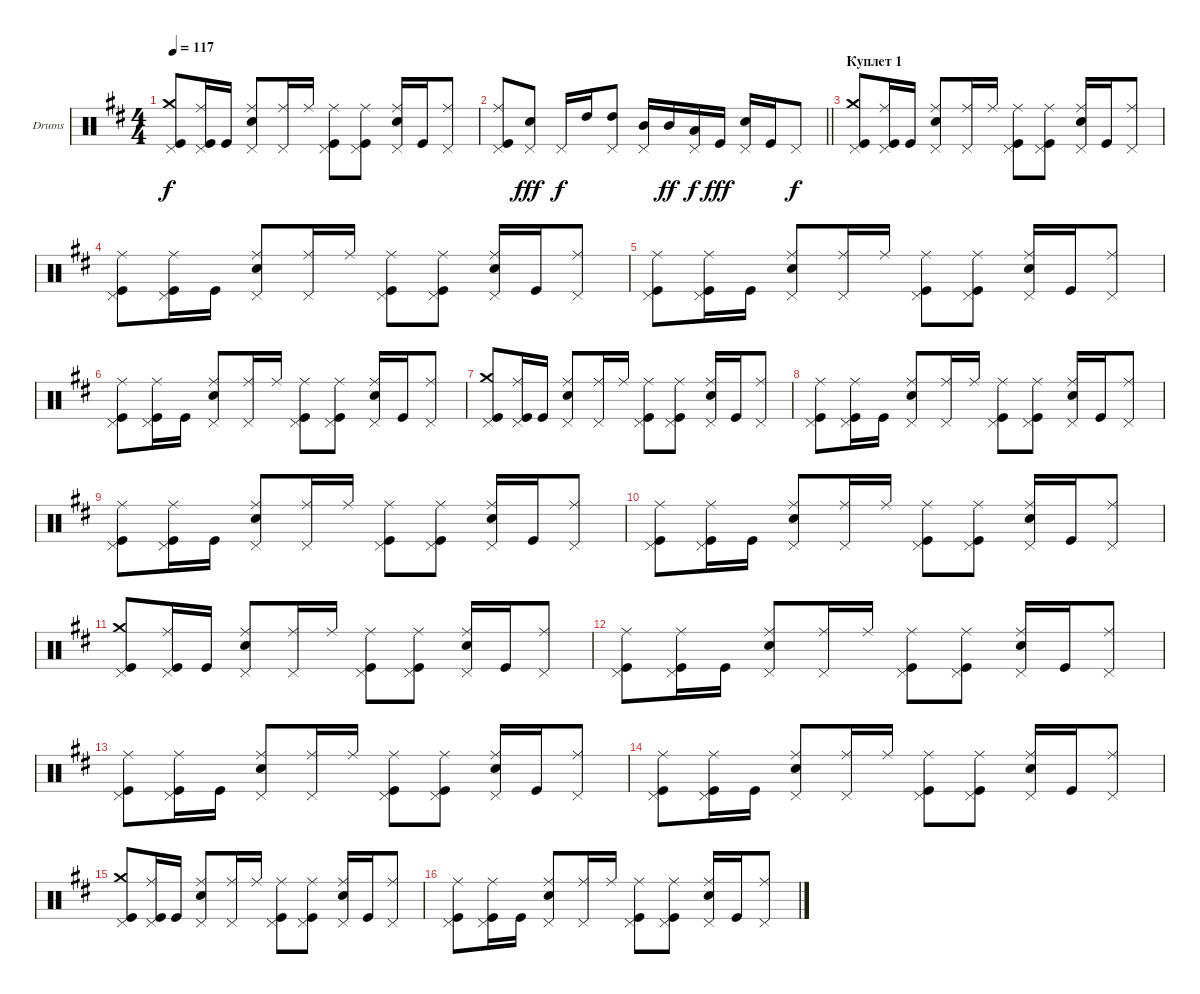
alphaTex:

\bracketExtendMode groupsimilarinstruments
\firstSystemTrackNameOrientation horizontal
\otherSystemsTrackNameOrientation horizontal
\track ("Барабаны" "Drums") {instrument percussion}
\staff {score}
\articulation defaults
\ts (4 4)
\tempo 117
\clef neutral
\ks d
("Kick (hit)" "Crash medium (hit)" "Pedal Hi-Hat (hit)").8{dy f} ("Kick (hit)" "Ride (middle)" "Pedal Hi-Hat (hit)").16 "Kick (hit)".16 ("Snare (hit) 2" "Ride (middle)" "Pedal Hi-Hat (hit)").8 ("Ride (middle)" "Pedal Hi-Hat (hit)").16 "Ride (middle)".16 ("Kick (hit)" "Ride (middle)" "Pedal Hi-Hat (hit)").8 ("Ride (middle)" "Kick (hit)" "Pedal Hi-Hat (hit)").8 ("Snare (hit) 2" "Ride (middle)" "Pedal Hi-Hat (hit)").16 "Kick (hit)".16 ("Ride (middle)" "Pedal Hi-Hat (hit)").8 |
\barLineRight lightlight
("Kick (hit)" "Pedal Hi-Hat (hit)" "Ride (middle)").8 ("Snare (hit) 2" "Pedal Hi-Hat (hit)").8{dy fff} "Pedal Hi-Hat (hit)".16{dy f} "High Tom (hit)".16 ("Pedal Hi-Hat (hit)" "High Tom (hit)").8 ("Pedal Hi-Hat (hit)" "Mid Tom (hit)").16 "Mid Tom (hit)".16{dy ff} ("Pedal Hi-Hat (hit)" "Low Tom (hit)").16{dy f} "Kick (hit)".16{dy fff} ("Snare (hit) 2" "Pedal Hi-Hat (hit)").16 "Kick (hit)".16 "Pedal Hi-Hat (hit)".8{dy f} |
\section ("" "Куплет 1")
("Kick (hit)" "Crash medium (hit)" "Pedal Hi-Hat (hit)").8 ("Kick (hit)" "Ride (middle)" "Pedal Hi-Hat (hit)").16 "Kick (hit)".16 ("Snare (hit) 2" "Ride (middle)" "Pedal Hi-Hat (hit)").8 ("Ride (middle)" "Pedal Hi-Hat (hit)").16 "Ride (middle)".16 ("Kick (hit)" "Ride (middle)" "Pedal Hi-Hat (hit)").8 ("Ride (middle)" "Kick (hit)" "Pedal Hi-Hat (hit)").8 ("Snare (hit) 2" "Ride (middle)" "Pedal Hi-Hat (hit)").16 "Kick (hit)".16 ("Ride (middle)" "Pedal Hi-Hat (hit)").8 |
("Kick (hit)" "Ride (middle)" "Pedal Hi-Hat (hit)").8 ("Kick (hit)" "Ride (middle)" "Pedal Hi-Hat (hit)").16 "Kick (hit)".16 ("Snare (hit) 2" "Ride (middle)" "Pedal Hi-Hat (hit)").8 ("Ride (middle)" "Pedal Hi-Hat (hit)").16 "Ride (middle)".16 ("Kick (hit)" "Ride (middle)" "Pedal Hi-Hat (hit)").8 ("Ride (middle)" "Kick (hit)" "Pedal Hi-Hat (hit)").8 ("Snare (hit) 2" "Ride (middle)" "Pedal Hi-Hat (hit)").16 "Kick (hit)".16 ("Ride (middle)" "Pedal Hi-Hat (hit)").8 |
("Kick (hit)" "Ride (middle)" "Pedal Hi-Hat (hit)").8 ("Kick (hit)" "Ride (middle)" "Pedal Hi-Hat (hit)").16 "Kick (hit)".16 ("Snare (hit) 2" "Ride (middle)" "Pedal Hi-Hat (hit)").8 ("Ride (middle)" "Pedal Hi-Hat (hit)").16 "Ride (middle)".16 ("Kick (hit)" "Ride (middle)" "Pedal Hi-Hat (hit)").8 ("Ride (middle)" "Kick (hit)" "Pedal Hi-Hat (hit)").8 ("Snare (hit) 2" "Ride (middle)" "Pedal Hi-Hat (hit)").16 "Kick (hit)".16 ("Ride (middle)" "Pedal Hi-Hat (hit)").8 |
("Kick (hit)" "Ride (middle)" "Pedal Hi-Hat (hit)").8 ("Kick (hit)" "Ride (middle)" "Pedal Hi-Hat (hit)").16 "Kick (hit)".16 ("Snare (hit) 2" "Ride (middle)" "Pedal Hi-Hat (hit)").8 ("Ride (middle)" "Pedal Hi-Hat (hit)").16 "Ride (middle)".16 ("Kick (hit)" "Ride (middle)" "Pedal Hi-Hat (hit)").8 ("Ride (middle)" "Kick (hit)" "Pedal Hi-Hat (hit)").8 ("Snare (hit) 2" "Ride (middle)" "Pedal Hi-Hat (hit)").16 "Kick (hit)".16 ("Ride (middle)" "Pedal Hi-Hat (hit)").8 |
("Kick (hit)" "Crash medium (hit)" "Pedal Hi-Hat (hit)").8 ("Kick (hit)" "Ride (middle)" "Pedal Hi-Hat (hit)").16 "Kick (hit)".16 ("Snare (hit) 2" "Ride (middle)" "Pedal Hi-Hat (hit)").8 ("Ride (middle)" "Pedal Hi-Hat (hit)").16 "Ride (middle)".16 ("Kick (hit)" "Ride (middle)" "Pedal Hi-Hat (hit)").8 ("Ride (middle)" "Kick (hit)" "Pedal Hi-Hat (hit)").8 ("Snare (hit) 2" "Ride (middle)" "Pedal Hi-Hat (hit)").16 "Kick (hit)".16 ("Ride (middle)" "Pedal Hi-Hat (hit)").8 |
("Kick (hit)" "Ride (middle)" "Pedal Hi-Hat (hit)").8 ("Kick (hit)" "Ride (middle)" "Pedal Hi-Hat (hit)").16 "Kick (hit)".16 ("Snare (hit) 2" "Ride (middle)" "Pedal Hi-Hat (hit)").8 ("Ride (middle)" "Pedal Hi-Hat (hit)").16 "Ride (middle)".16 ("Kick (hit)" "Ride (middle)" "Pedal Hi-Hat (hit)").8 ("Ride (middle)" "Kick (hit)" "Pedal Hi-Hat (hit)").8 ("Snare (hit) 2" "Ride (middle)" "Pedal Hi-Hat (hit)").16 "Kick (hit)".16 ("Ride (middle)" "Pedal Hi-Hat (hit)").8 |
("Kick (hit)" "Ride (middle)" "Pedal Hi-Hat (hit)").8 ("Kick (hit)" "Ride (middle)" "Pedal Hi-Hat (hit)").16 "Kick (hit)".16 ("Snare (hit) 2" "Ride (middle)" "Pedal Hi-Hat (hit)").8 ("Ride (middle)" "Pedal Hi-Hat (hit)").16 "Ride (middle)".16 ("Kick (hit)" "Ride (middle)" "Pedal Hi-Hat (hit)").8 ("Ride (middle)" "Kick (hit)" "Pedal Hi-Hat (hit)").8 ("Snare (hit) 2" "Ride (middle)" "Pedal Hi-Hat (hit)").16 "Kick (hit)".16 ("Ride (middle)" "Pedal Hi-Hat (hit)").8 |
("Kick (hit)" "Ride (middle)" "Pedal Hi-Hat (hit)").8 ("Kick (hit)" "Ride (middle)" "Pedal Hi-Hat (hit)").16 "Kick (hit)".16 ("Snare (hit) 2" "Ride (middle)" "Pedal Hi-Hat (hit)").8 ("Ride (middle)" "Pedal Hi-Hat (hit)").16 "Ride (middle)".16 ("Kick (hit)" "Ride (middle)" "Pedal Hi-Hat (hit)").8 ("Ride (middle)" "Kick (hit)" "Pedal Hi-Hat (hit)").8 ("Snare (hit) 2" "Ride (middle)" "Pedal Hi-Hat (hit)").16 "Kick (hit)".16 ("Ride (middle)" "Pedal Hi-Hat (hit)").8 |
("Kick (hit)" "Crash medium (hit)" "Pedal Hi-Hat (hit)").8 ("Kick (hit)" "Ride (middle)" "Pedal Hi-Hat (hit)").16 "Kick (hit)".16 ("Snare (hit) 2" "Ride (middle)" "Pedal Hi-Hat (hit)").8 ("Ride (middle)" "Pedal Hi-Hat (hit)").16 "Ride (middle)".16 ("Kick (hit)" "Ride (middle)" "Pedal Hi-Hat (hit)").8 ("Ride (middle)" "Kick (hit)" "Pedal Hi-Hat (hit)").8 ("Snare (hit) 2" "Ride (middle)" "Pedal Hi-Hat (hit)").16 "Kick (hit)".16 ("Ride (middle)" "Pedal Hi-Hat (hit)").8 |
("Kick (hit)" "Ride (middle)" "Pedal Hi-Hat (hit)").8 ("Kick (hit)" "Ride (middle)" "Pedal Hi-Hat (hit)").16 "Kick (hit)".16 ("Snare (hit) 2" "Ride (middle)" "Pedal Hi-Hat (hit)").8 ("Ride (middle)" "Pedal Hi-Hat (hit)").16 "Ride (middle)".16 ("Kick (hit)" "Ride (middle)" "Pedal Hi-Hat (hit)").8 ("Ride (middle)" "Kick (hit)" "Pedal Hi-Hat (hit)").8 ("Snare (hit) 2" "Ride (middle)" "Pedal Hi-Hat (hit)").16 "Kick (hit)".16 ("Ride (middle)" "Pedal Hi-Hat (hit)").8 |
("Kick (hit)" "Ride (middle)" "Pedal Hi-Hat (hit)").8 ("Kick (hit)" "Ride (middle)" "Pedal Hi-Hat (hit)").16 "Kick (hit)".16 ("Snare (hit) 2" "Ride (middle)" "Pedal Hi-Hat (hit)").8 ("Ride (middle)" "Pedal Hi-Hat (hit)").16 "Ride (middle)".16 ("Kick (hit)" "Ride (middle)" "Pedal Hi-Hat (hit)").8 ("Ride (middle)" "Kick (hit)" "Pedal Hi-Hat (hit)").8 ("Snare (hit) 2" "Ride (middle)" "Pedal Hi-Hat (hit)").16 "Kick (hit)".16 ("Ride (middle)" "Pedal Hi-Hat (hit)").8 |
("Kick (hit)" "Ride (middle)" "Pedal Hi-Hat (hit)").8 ("Kick (hit)" "Ride (middle)" "Pedal Hi-Hat (hit)").16 "Kick (hit)".16 ("Snare (hit) 2" "Ride (middle)" "Pedal Hi-Hat (hit)").8 ("Ride (middle)" "Pedal Hi-Hat (hit)").16 "Ride (middle)".16 ("Kick (hit)" "Ride (middle)" "Pedal Hi-Hat (hit)").8 ("Ride (middle)" "Kick (hit)" "Pedal Hi-Hat (hit)").8 ("Snare (hit) 2" "Ride (middle)" "Pedal Hi-Hat (hit)").16 "Kick (hit)".16 ("Ride (middle)" "Pedal Hi-Hat (hit)").8 |
("Kick (hit)" "Crash medium (hit)" "Pedal Hi-Hat (hit)").8 ("Kick (hit)" "Ride (middle)" "Pedal Hi-Hat (hit)").16 "Kick (hit)".16 ("Snare (hit) 2" "Ride (middle)" "Pedal Hi-Hat (hit)").8 ("Ride (middle)" "Pedal Hi-Hat (hit)").16 "Ride (middle)".16 ("Kick (hit)" "Ride (middle)" "Pedal Hi-Hat (hit)").8 ("Ride (middle)" "Kick (hit)" "Pedal Hi-Hat (hit)").8 ("Snare (hit) 2" "Ride (middle)" "Pedal Hi-Hat (hit)").16 "Kick (hit)".16 ("Ride (middle)" "Pedal Hi-Hat (hit)").8 |
("Kick (hit)" "Ride (middle)" "Pedal Hi-Hat (hit)").8 ("Kick (hit)" "Ride (middle)" "Pedal Hi-Hat (hit)").16 "Kick (hit)".16 ("Snare (hit) 2" "Ride (middle)" "Pedal Hi-Hat (hit)").8 ("Ride (middle)" "Pedal Hi-Hat (hit)").16 "Ride (middle)".16 ("Kick (hit)" "Ride (middle)" "Pedal Hi-Hat (hit)").8 ("Ride (middle)" "Kick (hit)" "Pedal Hi-Hat (hit)").8 ("Snare (hit) 2" "Ride (middle)" "Pedal Hi-Hat (hit)").16 "Kick (hit)".16 ("Ride (middle)" "Pedal Hi-Hat (hit)").8
